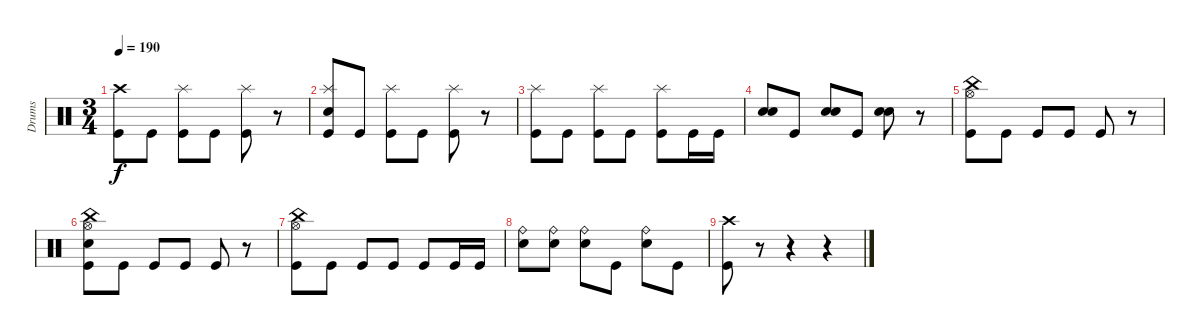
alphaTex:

\track ("Drums" "Drums") {instrument percussion}
\staff {score}
\articulation defaults
\ts (3 4)
\tempo 190
\clef neutral
\ks c
("Kick (hit)" "Crash high (hit)").8{dy f} "Kick (hit)".8 ("Kick (hit)" "Splash (hit)").8 "Kick (hit)".8 ("Kick (hit)" "Splash (hit)").8 r.8 |
("Kick (hit)" "Splash (hit)" "Snare (hit) 2").8 "Kick (hit)".8 ("Kick (hit)" "Splash (hit)").8 "Kick (hit)".8 ("Kick (hit)" "Splash (hit)").8 r.8 |
("Splash (hit)" "Kick (hit)").8 "Kick (hit)".8 ("Kick (hit)" "Splash (hit)").8 "Kick (hit)".8 ("Kick (hit)" "Splash (hit)").8 "Kick (hit)".16 "Kick (hit)".16 |
("Snare (hit) 2" "Snare (hit) 2").8 "Kick (hit)".8 ("Snare (hit) 2" "Snare (hit) 2").8 "Kick (hit)".8 ("Snare (hit) 2" "Snare (hit) 2").8 r.8 |
("Kick (hit)" "China (hit)" "Hi-Hat (open)").8 "Kick (hit)".8 "Kick (hit)".8 "Kick (hit)".8 "Kick (hit)".8 r.8 |
("Kick (hit)" "China (hit)" "Hi-Hat (open)" "Snare (hit) 2").8 "Kick (hit)".8 "Kick (hit)".8 "Kick (hit)".8 "Kick (hit)".8 r.8 |
("Kick (hit)" "China (hit)" "Hi-Hat (open)").8 "Kick (hit)".8 "Kick (hit)".8 "Kick (hit)".8 "Kick (hit)".8 "Kick (hit)".16 "Kick (hit)".16 |
("Snare (hit) 2" "Ride (bell)").8 ("Snare (hit) 2" "Ride (bell)").8 ("Snare (hit) 2" "Ride (bell)").8 "Kick (hit)".8 ("Snare (hit) 2" "Ride (bell)").8 "Kick (hit)".8 |
("Kick (hit)" "Crash high (hit)").8 r.8 r.4 r.4
